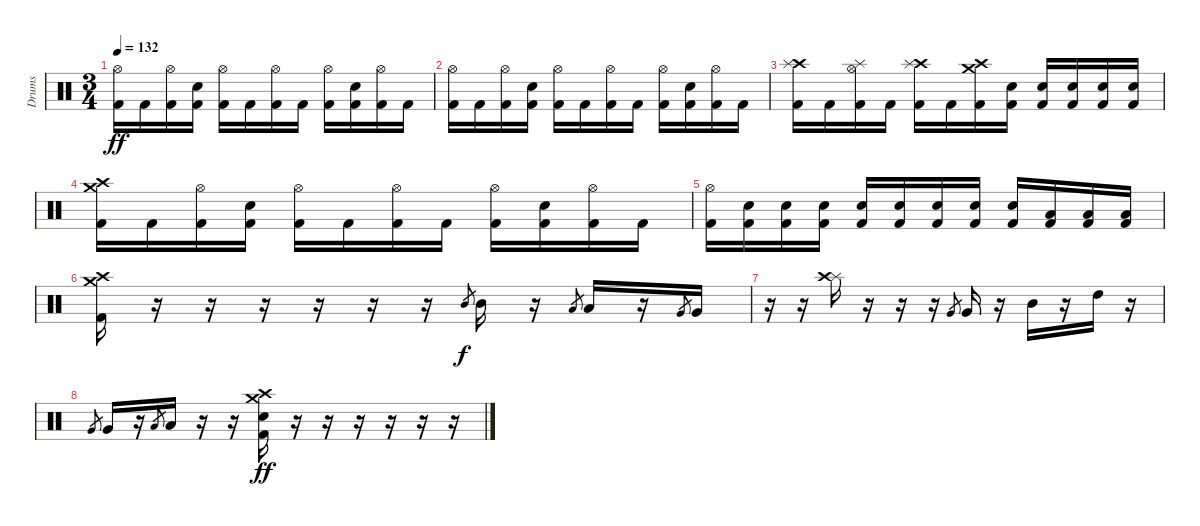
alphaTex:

\track ("Drums" "Drums") {instrument percussion}
\staff {score}
\articulation defaults
\ts (3 4)
\tempo 132
\clef neutral
\ks c
("Hi-Hat (open)" "Kick (hit) 2").16{dy ff} "Kick (hit) 2".16 ("Hi-Hat (open)" "Kick (hit) 2").16 ("Snare (hit) 2" "Kick (hit) 2").16 ("Hi-Hat (open)" "Kick (hit) 2").16 "Kick (hit) 2".16 ("Hi-Hat (open)" "Kick (hit) 2").16 "Kick (hit) 2".16 ("Hi-Hat (open)" "Kick (hit) 2").16 ("Snare (hit) 2" "Kick (hit) 2").16 ("Hi-Hat (open)" "Kick (hit) 2").16 "Kick (hit) 2".16 |
("Hi-Hat (open)" "Kick (hit) 2").16 "Kick (hit) 2".16 ("Hi-Hat (open)" "Kick (hit) 2").16 ("Snare (hit) 2" "Kick (hit) 2").16 ("Hi-Hat (open)" "Kick (hit) 2").16 "Kick (hit) 2".16 ("Hi-Hat (open)" "Kick (hit) 2").16 "Kick (hit) 2".16 ("Hi-Hat (open)" "Kick (hit) 2").16 ("Snare (hit) 2" "Kick (hit) 2").16 ("Hi-Hat (open)" "Kick (hit) 2").16 "Kick (hit) 2".16 |
("Crash high (hit)" "Splash (hit)" "Kick (hit) 2").16 "Kick (hit) 2".16 ("Hi-Hat (open)" "Splash (hit)" "Kick (hit) 2").16 "Kick (hit) 2".16 ("Crash high (hit)" "Splash (hit)" "Kick (hit) 2").16 "Kick (hit) 2".16 ("Crash high (hit)" "Crash medium (hit)" "Kick (hit) 2").16 ("Snare (hit) 2" "Kick (hit) 2").16 ("Snare (hit) 2" "Kick (hit) 2").16 ("Snare (hit) 2" "Kick (hit) 2").16 ("Snare (hit) 2" "Kick (hit) 2").16 ("Snare (hit) 2" "Kick (hit) 2").16 |
("Crash high (hit)" "Crash medium (hit)" "Kick (hit) 2").16 "Kick (hit) 2".16 ("Hi-Hat (open)" "Kick (hit) 2").16 ("Snare (hit) 2" "Kick (hit) 2").16 ("Hi-Hat (open)" "Kick (hit) 2").16 "Kick (hit) 2".16 ("Hi-Hat (open)" "Kick (hit) 2").16 "Kick (hit) 2".16 ("Hi-Hat (open)" "Kick (hit) 2").16 ("Snare (hit) 2" "Kick (hit) 2").16 ("Hi-Hat (open)" "Kick (hit) 2").16 "Kick (hit) 2".16 |
("Hi-Hat (open)" "Kick (hit) 2").16 ("Snare (hit) 2" "Kick (hit) 2").16 ("Snare (hit) 2" "Kick (hit) 2").16 ("Snare (hit) 2" "Kick (hit) 2").16 ("Snare (hit) 2" "Kick (hit) 2").16 ("Snare (hit) 2" "Kick (hit) 2").16 ("Snare (hit) 2" "Kick (hit) 2").16 ("Snare (hit) 2" "Kick (hit) 2").16 ("Snare (hit) 2" "Kick (hit) 2").16 ("Low Tom (hit)" "Kick (hit) 2").16 ("Low Tom (hit)" "Kick (hit) 2").16 ("Low Tom (hit)" "Kick (hit) 2").16 |
("Crash high (hit)" "Crash medium (hit)" "Kick (hit) 2").16 r.16 r.16 r.16 r.16 r.16 r.16 "Mid Tom (hit)".8{gr dy f} "Mid Tom (hit)".16 r.16 "Low Tom (hit)".8{gr} "Low Tom (hit)".16 r.16 "Very Low Tom (hit)".8{gr} "Very Low Tom (hit)".16 |
r.16 r.16 ("Splash (hit)" "Crash high (hit)").16 r.16 r.16 r.16 "Very Low Tom (hit)".8{gr} "Very Low Tom (hit)".16 r.16 "Mid Tom (hit)".16 r.16 "High Tom (hit)".16 r.16 |
"Very Low Tom (hit)".8{gr} "Very Low Tom (hit)".16 r.16 "Low Floor Tom (hit)".8{gr} "Low Floor Tom (hit)".16 r.16 r.16 ("Crash medium (hit)" "Crash high (hit)" "Snare (hit) 2" "Kick (hit) 2").16{dy ff} r.16 r.16 r.16 r.16 r.16 r.16
